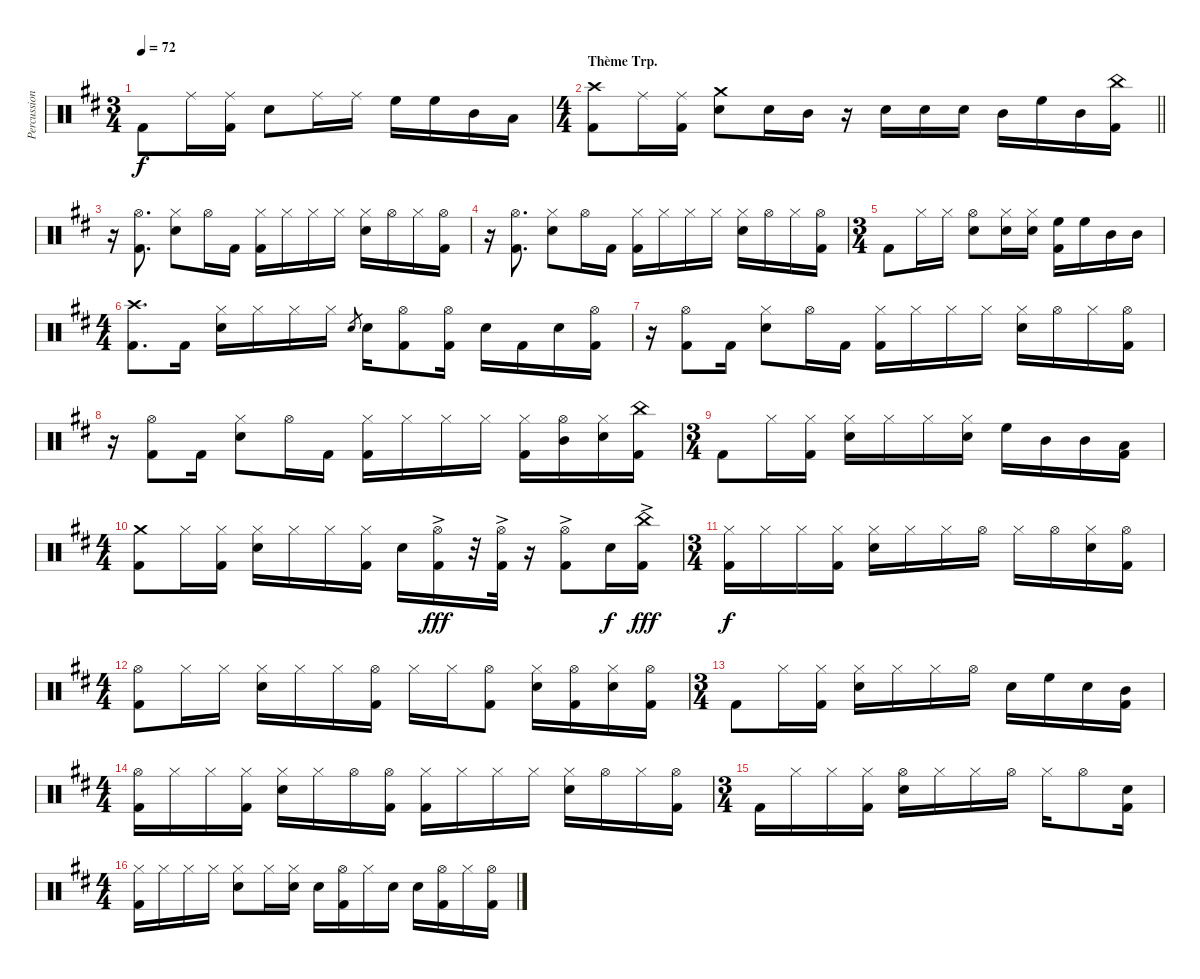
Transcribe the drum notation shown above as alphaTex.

\track ("Percussions" "Percussion") {instrument percussion}
\staff {score}
\articulation defaults
\ts (3 4)
\tempo 72
\clef neutral
\ks bminor "Kick (hit) 2".8{dy f} "Ride (middle)".16
("Ride (middle)" "Kick (hit) 2").16 "Snare (hit) 2".8 "Ride (middle)".16 "Ride (middle)".16 "High Floor Tom (hit)".16 "High Floor Tom (hit)".16 "Mid Tom (hit)".16 "Low Tom (hit)".16 |
\ts (4 4)
\section ("" "Thème Trp.")
\barLineRight lightlight
("Crash high (hit)" "Kick (hit) 2").8 "Ride (middle)".16 ("Ride (middle)" "Kick (hit) 2").16 ("Crash medium (hit)" "Snare (hit) 2").8 "Snare (hit) 2".16 "Mid Tom (hit)".16 r.16 "Snare (hit) 2".16 "Snare (hit) 2".16 "Snare (hit) 2".16 "Mid Tom (hit)".16 "High Floor Tom (hit)".16 "Mid Tom (hit)".16 ("China (hit)" "Kick (hit) 2").16 |
r.16 ("Hi-Hat (open)" "Kick (hit) 2").8{d} ("Hi-Hat (closed)" "Snare (hit) 2").8 "Hi-Hat (open)".16 "Kick (hit) 2".16 ("Hi-Hat (closed)" "Kick (hit) 2").16 "Hi-Hat (closed)".16 "Hi-Hat (closed)".16 "Hi-Hat (closed)".16 ("Hi-Hat (closed)" "Snare (hit) 2").16 "Hi-Hat (open)".16 "Hi-Hat (closed)".16 ("Hi-Hat (open)" "Kick (hit) 2").16 |
r.16 ("Hi-Hat (open)" "Kick (hit) 2").8{d} ("Hi-Hat (closed)" "Snare (hit) 2").8 "Hi-Hat (open)".16 "Kick (hit) 2".16 ("Hi-Hat (closed)" "Kick (hit) 2").16 "Hi-Hat (closed)".16 "Hi-Hat (closed)".16 "Hi-Hat (closed)".16 ("Hi-Hat (closed)" "Snare (hit) 2").16 "Hi-Hat (open)".16 "Hi-Hat (closed)".16 ("Hi-Hat (open)" "Kick (hit) 2").16 |
\ts (3 4)
"Kick (hit) 2".8 "Hi-Hat (closed)".16 "Hi-Hat (closed)".16 ("Hi-Hat (open)" "Snare (hit) 2").8 ("Hi-Hat (closed)" "Snare (hit) 2").16 ("Hi-Hat (closed)" "Snare (hit) 2").16 ("High Floor Tom (hit)" "Kick (hit) 2").16 "High Floor Tom (hit)".16 "Mid Tom (hit)".16 "Mid Tom (hit)".16 |
\ts (4 4)
("Crash high (hit)" "Kick (hit) 2").8{d} "Kick (hit) 2".16 ("Hi-Hat (closed)" "Snare (hit) 2").16 "Hi-Hat (closed)".16 "Hi-Hat (closed)".16 "Hi-Hat (closed)".16 "Snare (hit) 2".8{gr} "Snare (hit) 2".16 ("Hi-Hat (open)" "Kick (hit) 2").8 ("Hi-Hat (open)" "Kick (hit) 2").16 "Snare (hit) 2".16 "Kick (hit) 2".16 "Snare (hit) 2".16 ("Hi-Hat (open)" "Kick (hit) 2").16 |
r.16 ("Hi-Hat (open)" "Kick (hit) 2").8 "Kick (hit) 2".16 ("Hi-Hat (closed)" "Snare (hit) 2").8 "Hi-Hat (open)".16 "Kick (hit) 2".16 ("Hi-Hat (closed)" "Kick (hit) 2").16 "Hi-Hat (closed)".16 "Hi-Hat (closed)".16 "Hi-Hat (closed)".16 ("Hi-Hat (closed)" "Snare (hit) 2").16 "Hi-Hat (open)".16 "Hi-Hat (closed)".16 ("Hi-Hat (open)" "Kick (hit) 2").16 |
r.16 ("Hi-Hat (open)" "Kick (hit) 2").8 "Kick (hit) 2".16 ("Hi-Hat (closed)" "Snare (hit) 2").8 "Hi-Hat (open)".16 "Kick (hit) 2".16 ("Hi-Hat (closed)" "Kick (hit) 2").16 "Hi-Hat (closed)".16 "Hi-Hat (closed)".16 "Hi-Hat (closed)".16 ("Hi-Hat (closed)" "Kick (hit) 2").16 ("Hi-Hat (open)" "Mid Tom (hit)").16 ("Hi-Hat (closed)" "Snare (hit) 2").16 ("China (hit)" "Kick (hit) 2").16 |
\ts (3 4)
"Kick (hit) 2".8 "Hi-Hat (closed)".16 ("Hi-Hat (closed)" "Kick (hit) 2").16 ("Hi-Hat (closed)" "Snare (hit) 2").16 "Hi-Hat (closed)".16 "Hi-Hat (closed)".16 ("Hi-Hat (closed)" "Snare (hit) 2").16 "High Floor Tom (hit)".16 "Mid Tom (hit)".16 "Mid Tom (hit)".16 ("Low Tom (hit)" "Kick (hit) 2").16 |
\ts (4 4)
("Crash medium (hit)" "Kick (hit) 2").8 "Hi-Hat (closed)".16 ("Hi-Hat (closed)" "Kick (hit) 2").16 ("Hi-Hat (closed)" "Snare (hit) 2").16 "Hi-Hat (closed)".16 "Hi-Hat (closed)".16 ("Hi-Hat (closed)" "Kick (hit) 2").16 "Snare (hit) 2".16 ("Hi-Hat (open)"{ac} "Kick (hit) 2").16{dy fff} r.32 ("Hi-Hat (open)"{ac} "Kick (hit) 2").32 r.16 ("Hi-Hat (open)"{ac} "Kick (hit) 2").8 "Snare (hit) 2".16{dy f} ("China (hit)"{ac} "Kick (hit) 2").16{dy fff} |
\ts (3 4)
("Hi-Hat (closed)" "Kick (hit) 2").16{dy f} "Hi-Hat (closed)".16 "Hi-Hat (closed)".16 ("Hi-Hat (closed)" "Kick (hit) 2").16 ("Hi-Hat (closed)" "Snare (hit) 2").16 "Hi-Hat (closed)".16 "Hi-Hat (closed)".16 "Hi-Hat (open)".16 "Hi-Hat (closed)".16 "Hi-Hat (open)".16 ("Hi-Hat (closed)" "Snare (hit) 2").16 ("Hi-Hat (open)" "Kick (hit) 2").16 |
\ts (4 4)
("Hi-Hat (open)" "Kick (hit) 2").8 "Hi-Hat (closed)".16 "Hi-Hat (closed)".16 ("Hi-Hat (closed)" "Snare (hit) 2").16 "Hi-Hat (closed)".16 "Hi-Hat (closed)".16 ("Hi-Hat (open)" "Kick (hit) 2").16 "Hi-Hat (closed)".16 "Hi-Hat (closed)".16 ("Hi-Hat (open)" "Kick (hit) 2").8 ("Hi-Hat (closed)" "Snare (hit) 2").16 ("Hi-Hat (open)" "Kick (hit) 2").16 ("Hi-Hat (closed)" "Snare (hit) 2").16 ("Hi-Hat (open)" "Kick (hit) 2").16 |
\ts (3 4)
"Kick (hit) 2".8 "Hi-Hat (closed)".16 ("Hi-Hat (closed)" "Kick (hit) 2").16 ("Hi-Hat (closed)" "Snare (hit) 2").16 "Hi-Hat (closed)".16 "Hi-Hat (closed)".16 "Hi-Hat (open)".16 "Snare (hit) 2".16 "High Floor Tom (hit)".16 "Snare (hit) 2".16 ("Mid Tom (hit)" "Kick (hit) 2").16 |
\ts (4 4)
("Hi-Hat (open)" "Kick (hit) 2").16 "Hi-Hat (closed)".16 "Hi-Hat (closed)".16 ("Hi-Hat (closed)" "Kick (hit) 2").16 ("Hi-Hat (closed)" "Snare (hit) 2").16 "Hi-Hat (closed)".16 "Hi-Hat (open)".16 ("Hi-Hat (open)" "Kick (hit) 2").16 ("Hi-Hat (closed)" "Kick (hit) 2").16 "Hi-Hat (closed)".16 "Hi-Hat (closed)".16 "Hi-Hat (closed)".16 ("Hi-Hat (closed)" "Snare (hit) 2").16 "Hi-Hat (open)".16 "Hi-Hat (closed)".16 ("Hi-Hat (open)" "Kick (hit) 2").16 |
\ts (3 4)
"Kick (hit) 2".16 "Hi-Hat (closed)".16 "Hi-Hat (closed)".16 ("Hi-Hat (closed)" "Kick (hit) 2").16 ("Hi-Hat (open)" "Snare (hit) 2").16 "Hi-Hat (closed)".16 "Hi-Hat (closed)".16 "Hi-Hat (open)".16 "Hi-Hat (closed)".16 "Hi-Hat (open)".8 ("Snare (hit) 2" "Kick (hit) 2").16 |
\ts (4 4)
("Hi-Hat (closed)" "Kick (hit) 2").16 "Hi-Hat (closed)".16 "Hi-Hat (closed)".16 "Hi-Hat (closed)".16 ("Hi-Hat (closed)" "Snare (hit) 2").8 "Hi-Hat (closed)".16 ("Hi-Hat (closed)" "Snare (hit) 2").16 "Snare (hit) 2".16 ("Hi-Hat (open)" "Kick (hit) 2").16 "Hi-Hat (closed)".16 "Snare (hit) 2".16 "Snare (hit) 2".16 ("Hi-Hat (open)" "Kick (hit) 2").16 "Hi-Hat (closed)".16 ("Hi-Hat (open)" "Kick (hit) 2").16
